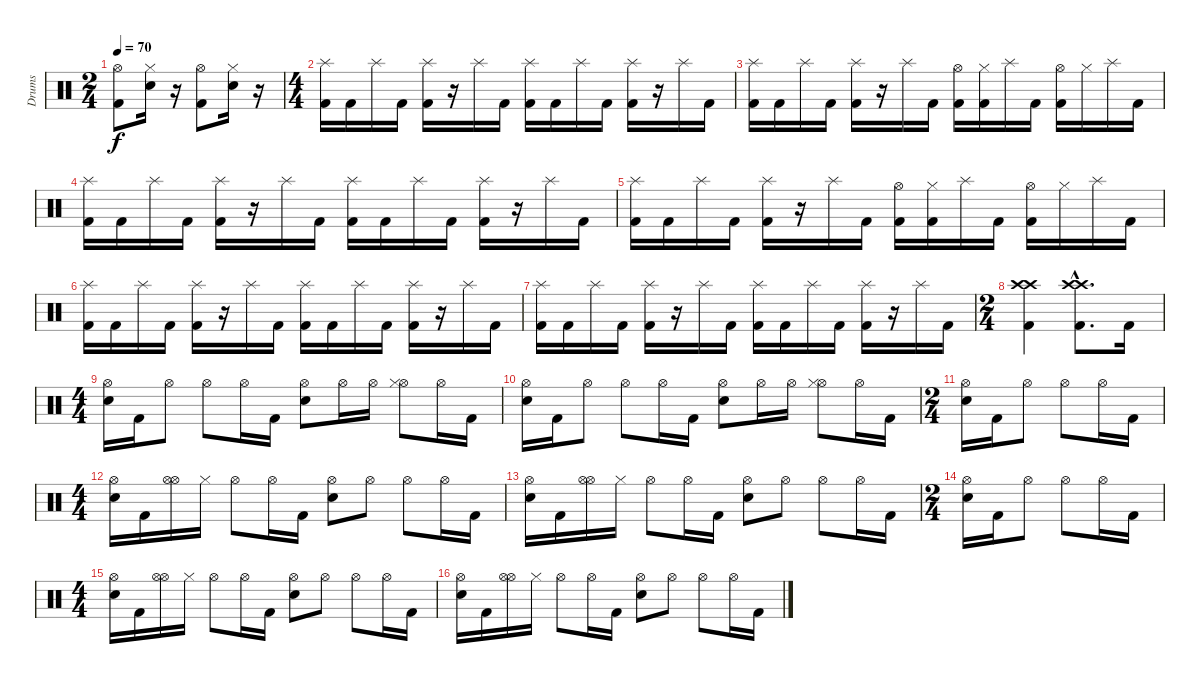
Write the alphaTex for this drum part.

\track ("Drums" "Drums") {instrument percussion}
\staff {score}
\articulation defaults
\ts (2 4)
\tempo 70
\clef neutral
\ks c
("Hi-Hat (open)" "Kick (hit) 2").8{dy f} ("Hi-Hat (closed)" "Snare (hit) 2").16 r.16 ("Hi-Hat (open)" "Kick (hit) 2").8 ("Hi-Hat (closed)" "Snare (hit) 2").16 r.16 |
\ts (4 4)
("Splash (hit)" "Kick (hit) 2").16 "Kick (hit) 2".16 "Splash (hit)".16 "Kick (hit) 2".16 ("Splash (hit)" "Kick (hit) 2").16 r.16 "Splash (hit)".16 "Kick (hit) 2".16 ("Splash (hit)" "Kick (hit) 2").16 "Kick (hit) 2".16 "Splash (hit)".16 "Kick (hit) 2".16 ("Splash (hit)" "Kick (hit) 2").16 r.16 "Splash (hit)".16 "Kick (hit) 2".16 |
("Splash (hit)" "Kick (hit) 2").16 "Kick (hit) 2".16 "Splash (hit)".16 "Kick (hit) 2".16 ("Splash (hit)" "Kick (hit) 2").16 r.16 "Splash (hit)".16 "Kick (hit) 2".16 ("Hi-Hat (open)" "Kick (hit) 2").16 ("Hi-Hat (closed)" "Kick (hit) 2").16 "Splash (hit)".16 "Kick (hit) 2".16 ("Hi-Hat (open)" "Kick (hit) 2").16 "Hi-Hat (closed)".16 "Splash (hit)".16 "Kick (hit) 2".16 |
("Splash (hit)" "Kick (hit) 2").16 "Kick (hit) 2".16 "Splash (hit)".16 "Kick (hit) 2".16 ("Splash (hit)" "Kick (hit) 2").16 r.16 "Splash (hit)".16 "Kick (hit) 2".16 ("Splash (hit)" "Kick (hit) 2").16 "Kick (hit) 2".16 "Splash (hit)".16 "Kick (hit) 2".16 ("Splash (hit)" "Kick (hit) 2").16 r.16 "Splash (hit)".16 "Kick (hit) 2".16 |
("Splash (hit)" "Kick (hit) 2").16 "Kick (hit) 2".16 "Splash (hit)".16 "Kick (hit) 2".16 ("Splash (hit)" "Kick (hit) 2").16 r.16 "Splash (hit)".16 "Kick (hit) 2".16 ("Hi-Hat (open)" "Kick (hit) 2").16 ("Hi-Hat (closed)" "Kick (hit) 2").16 "Splash (hit)".16 "Kick (hit) 2".16 ("Hi-Hat (open)" "Kick (hit) 2").16 "Hi-Hat (closed)".16 "Splash (hit)".16 "Kick (hit) 2".16 |
("Splash (hit)" "Kick (hit) 2").16 "Kick (hit) 2".16 "Splash (hit)".16 "Kick (hit) 2".16 ("Splash (hit)" "Kick (hit) 2").16 r.16 "Splash (hit)".16 "Kick (hit) 2".16 ("Splash (hit)" "Kick (hit) 2").16 "Kick (hit) 2".16 "Splash (hit)".16 "Kick (hit) 2".16 ("Splash (hit)" "Kick (hit) 2").16 r.16 "Splash (hit)".16 "Kick (hit) 2".16 |
("Splash (hit)" "Kick (hit) 2").16 "Kick (hit) 2".16 "Splash (hit)".16 "Kick (hit) 2".16 ("Splash (hit)" "Kick (hit) 2").16 r.16 "Splash (hit)".16 "Kick (hit) 2".16 ("Splash (hit)" "Kick (hit) 2").16 "Kick (hit) 2".16 "Splash (hit)".16 "Kick (hit) 2".16 ("Splash (hit)" "Kick (hit) 2").16 r.16 "Splash (hit)".16 "Kick (hit) 2".16 |
\ts (2 4)
("Crash high (hit)" "Crash high (hit)" "Kick (hit) 2").4 ("Crash high (hit)"{hac} "Crash high (hit)"{hac} "Kick (hit) 2"{hac}).8{d} "Kick (hit) 2".16 |
\ts (4 4)
("Hi-Hat (open)" "Snare (hit) 2").16 "Kick (hit) 2".16 "Hi-Hat (open)".8 "Hi-Hat (open)".8 "Hi-Hat (open)".16 "Kick (hit) 2".16 ("Hi-Hat (open)" "Snare (hit) 2").8 "Hi-Hat (open)".16 "Hi-Hat (open)".16 ("Hi-Hat (open)" "Hi-Hat (closed)").8 "Hi-Hat (open)".16 "Kick (hit) 2".16 |
("Hi-Hat (open)" "Snare (hit) 2").16 "Kick (hit) 2".16 "Hi-Hat (open)".8 "Hi-Hat (open)".8 "Hi-Hat (open)".16 "Kick (hit) 2".16 ("Hi-Hat (open)" "Snare (hit) 2").8 "Hi-Hat (open)".16 "Hi-Hat (open)".16 ("Hi-Hat (open)" "Hi-Hat (closed)").8 "Hi-Hat (open)".16 "Kick (hit) 2".16 |
\ts (2 4)
("Hi-Hat (open)" "Snare (hit) 2").16 "Kick (hit) 2".16 "Hi-Hat (open)".8 "Hi-Hat (open)".8 "Hi-Hat (open)".16 "Kick (hit) 2".16 |
\ts (4 4)
("Hi-Hat (open)" "Snare (hit) 2").16 "Kick (hit) 2".16 ("Hi-Hat (open)" "Hi-Hat (open)").16 "Hi-Hat (closed)".16 "Hi-Hat (open)".8 "Hi-Hat (open)".16 "Kick (hit) 2".16 ("Hi-Hat (open)" "Snare (hit) 2").8 "Hi-Hat (open)".8 "Hi-Hat (open)".8 "Hi-Hat (open)".16 "Kick (hit) 2".16 |
("Hi-Hat (open)" "Snare (hit) 2").16 "Kick (hit) 2".16 ("Hi-Hat (open)" "Hi-Hat (open)").16 "Hi-Hat (closed)".16 "Hi-Hat (open)".8 "Hi-Hat (open)".16 "Kick (hit) 2".16 ("Hi-Hat (open)" "Snare (hit) 2").8 "Hi-Hat (open)".8 "Hi-Hat (open)".8 "Hi-Hat (open)".16 "Kick (hit) 2".16 |
\ts (2 4)
("Hi-Hat (open)" "Snare (hit) 2").16 "Kick (hit) 2".16 "Hi-Hat (open)".8 "Hi-Hat (open)".8 "Hi-Hat (open)".16 "Kick (hit) 2".16 |
\ts (4 4)
("Hi-Hat (open)" "Snare (hit) 2").16 "Kick (hit) 2".16 ("Hi-Hat (open)" "Hi-Hat (open)").16 "Hi-Hat (closed)".16 "Hi-Hat (open)".8 "Hi-Hat (open)".16 "Kick (hit) 2".16 ("Hi-Hat (open)" "Snare (hit) 2").8 "Hi-Hat (open)".8 "Hi-Hat (open)".8 "Hi-Hat (open)".16 "Kick (hit) 2".16 |
("Hi-Hat (open)" "Snare (hit) 2").16 "Kick (hit) 2".16 ("Hi-Hat (open)" "Hi-Hat (open)").16 "Hi-Hat (closed)".16 "Hi-Hat (open)".8 "Hi-Hat (open)".16 "Kick (hit) 2".16 ("Hi-Hat (open)" "Snare (hit) 2").8 "Hi-Hat (open)".8 "Hi-Hat (open)".8 "Hi-Hat (open)".16 "Kick (hit) 2".16
